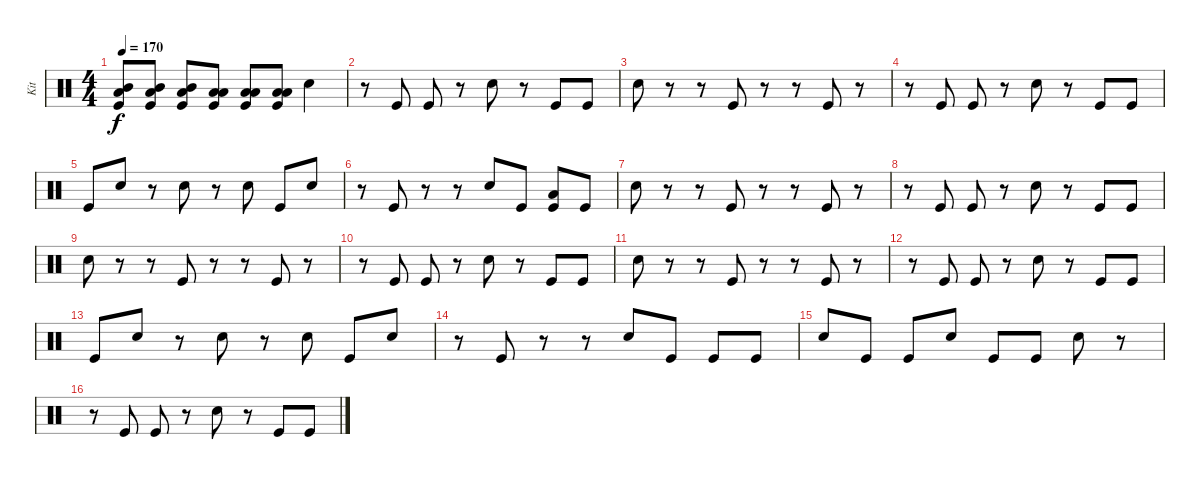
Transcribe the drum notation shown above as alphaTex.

\track ("Kit" "Kit") {instrument percussion}
\staff {score}
\articulation defaults
\ts (4 4)
\tempo 170
\clef neutral
\ks c
("Low Floor Tom (hit)" "Mid Tom (hit)" "Kick (hit)").8{dy f} ("Low Floor Tom (hit)" "Mid Tom (hit)" "Kick (hit)").8 ("Low Floor Tom (hit)" "Mid Tom (hit)" "Kick (hit)").8 ("Low Tom (hit)" "Low Floor Tom (hit)" "Kick (hit)").8 ("Low Tom (hit)" "Low Floor Tom (hit)" "Kick (hit)").8 ("Low Tom (hit)" "Low Floor Tom (hit)" "Kick (hit)").8 "Snare (hit) 2".4 |
r.8 "Kick (hit)".8 "Kick (hit)".8 r.8 "Snare (hit) 2".8 r.8 "Kick (hit)".8 "Kick (hit)".8 |
"Snare (hit) 2".8 r.8 r.8 "Kick (hit)".8 r.8 r.8 "Kick (hit)".8 r.8 |
r.8 "Kick (hit)".8 "Kick (hit)".8 r.8 "Snare (hit) 2".8 r.8 "Kick (hit)".8 "Kick (hit)".8 |
"Kick (hit)".8 "Snare (hit) 2".8 r.8 "Snare (hit) 2".8 r.8 "Snare (hit) 2".8 "Kick (hit)".8 "Snare (hit) 2".8 |
r.8 "Kick (hit)".8 r.8 r.8 "Snare (hit) 2".8 "Kick (hit)".8 ("Kick (hit)" "Low Floor Tom (hit)").8 "Kick (hit)".8 |
"Snare (hit) 2".8 r.8 r.8 "Kick (hit)".8 r.8 r.8 "Kick (hit)".8 r.8 |
r.8 "Kick (hit)".8 "Kick (hit)".8 r.8 "Snare (hit) 2".8 r.8 "Kick (hit)".8 "Kick (hit)".8 |
"Snare (hit) 2".8 r.8 r.8 "Kick (hit)".8 r.8 r.8 "Kick (hit)".8 r.8 |
r.8 "Kick (hit)".8 "Kick (hit)".8 r.8 "Snare (hit) 2".8 r.8 "Kick (hit)".8 "Kick (hit)".8 |
"Snare (hit) 2".8 r.8 r.8 "Kick (hit)".8 r.8 r.8 "Kick (hit)".8 r.8 |
r.8 "Kick (hit)".8 "Kick (hit)".8 r.8 "Snare (hit) 2".8 r.8 "Kick (hit)".8 "Kick (hit)".8 |
"Kick (hit)".8 "Snare (hit) 2".8 r.8 "Snare (hit) 2".8 r.8 "Snare (hit) 2".8 "Kick (hit)".8 "Snare (hit) 2".8 |
r.8 "Kick (hit)".8 r.8 r.8 "Snare (hit) 2".8 "Kick (hit)".8 "Kick (hit)".8 "Kick (hit)".8 |
"Snare (hit) 2".8 "Kick (hit)".8 "Kick (hit)".8 "Snare (hit) 2".8 "Kick (hit)".8 "Kick (hit)".8 "Snare (hit) 2".8 r.8 |
r.8 "Kick (hit)".8 "Kick (hit)".8 r.8 "Snare (hit) 2".8 r.8 "Kick (hit)".8 "Kick (hit)".8
